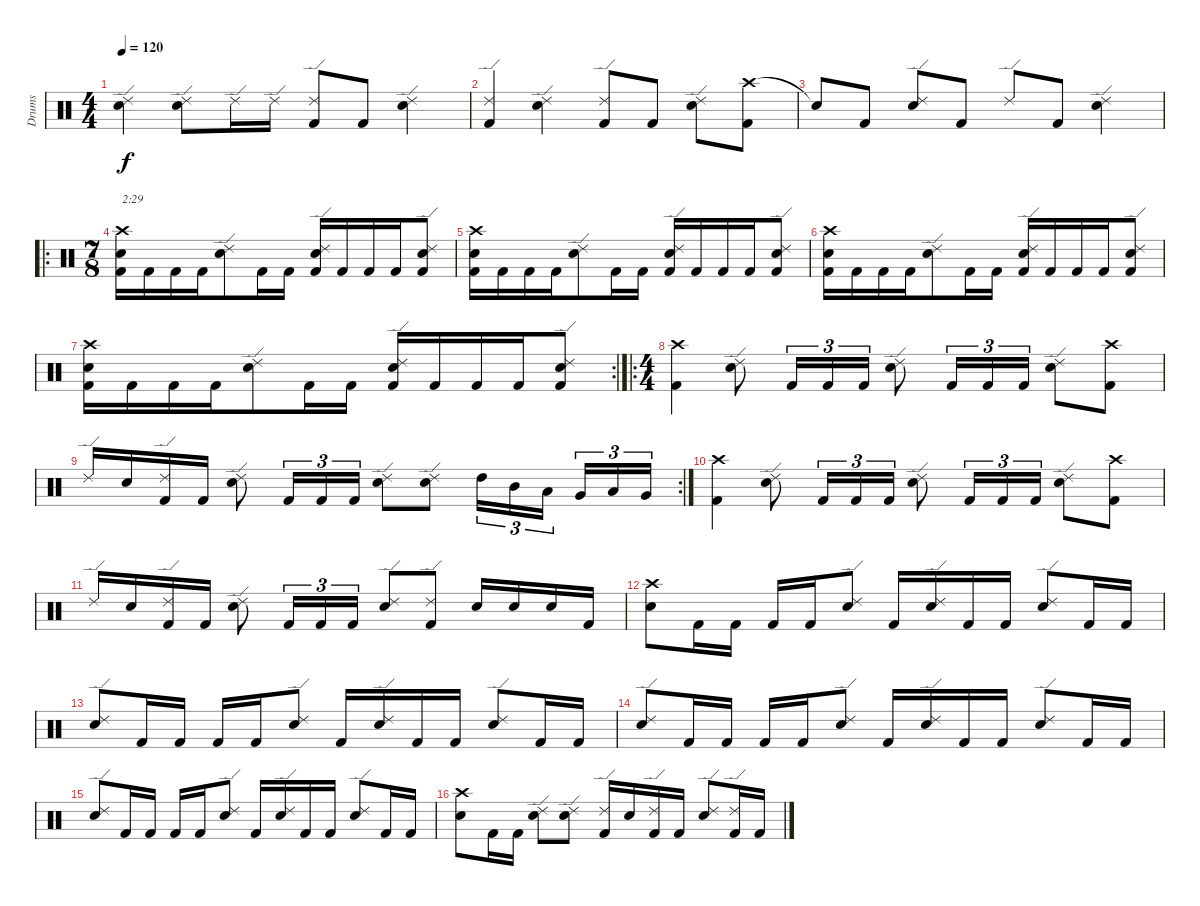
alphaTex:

\track ("Drums" "Drums") {instrument percussion}
\staff {score}
\articulation defaults
\ts (4 4)
\tempo 120
\clef neutral
\ks c
("Ride (edge) 2" "Snare (hit)"{t}).4{dy f} ("Ride (edge) 2" "Snare (hit) 2").8 "Ride (edge) 2".16 "Ride (edge) 2".16 ("Ride (edge) 2" "Kick (hit) 2").8 "Kick (hit) 2".8 ("Ride (edge) 2" "Snare (hit) 2").4 |
("Ride (edge) 2" "Kick (hit) 2").4 ("Ride (edge) 2" "Snare (hit) 2").4 ("Ride (edge) 2" "Kick (hit) 2").8 "Kick (hit) 2".8 ("Ride (edge) 2" "Snare (hit) 2").8 ("Crash high (hit)" "Kick (hit) 2").8 |
"Snare (hit)"{t}.8 "Kick (hit) 2".8 ("Ride (edge) 2" "Snare (hit) 2").8 "Kick (hit) 2".8 "Ride (edge) 2".8 "Kick (hit) 2".8 ("Ride (edge) 2" "Snare (hit) 2").4 |
\ro
\ts (7 8)
("Crash high (hit)" "Snare (hit) 2" "Kick (hit) 2").16{txt "2:29"} "Kick (hit) 2".16 "Kick (hit) 2".16 "Kick (hit) 2".16 ("Ride (edge) 2" "Snare (hit) 2").8 "Kick (hit) 2".16 "Kick (hit) 2".16 ("Ride (edge) 2" "Snare (hit) 2" "Kick (hit) 2").16 "Kick (hit) 2".16 "Kick (hit) 2".16 "Kick (hit) 2".16 ("Ride (edge) 2" "Snare (hit) 2" "Kick (hit) 2").8 |
("Crash high (hit)" "Snare (hit) 2" "Kick (hit) 2").16 "Kick (hit) 2".16 "Kick (hit) 2".16 "Kick (hit) 2".16 ("Ride (edge) 2" "Snare (hit) 2").8 "Kick (hit) 2".16 "Kick (hit) 2".16 ("Ride (edge) 2" "Snare (hit) 2" "Kick (hit) 2").16 "Kick (hit) 2".16 "Kick (hit) 2".16 "Kick (hit) 2".16 ("Ride (edge) 2" "Snare (hit) 2" "Kick (hit) 2").8 |
("Crash high (hit)" "Snare (hit) 2" "Kick (hit) 2").16 "Kick (hit) 2".16 "Kick (hit) 2".16 "Kick (hit) 2".16 ("Ride (edge) 2" "Snare (hit) 2").8 "Kick (hit) 2".16 "Kick (hit) 2".16 ("Ride (edge) 2" "Snare (hit) 2" "Kick (hit) 2").16 "Kick (hit) 2".16 "Kick (hit) 2".16 "Kick (hit) 2".16 ("Ride (edge) 2" "Snare (hit) 2" "Kick (hit) 2").8 |
\rc 2
("Crash high (hit)" "Snare (hit) 2" "Kick (hit) 2").16 "Kick (hit) 2".16 "Kick (hit) 2".16 "Kick (hit) 2".16 ("Ride (edge) 2" "Snare (hit) 2").8 "Kick (hit) 2".16 "Kick (hit) 2".16 ("Ride (edge) 2" "Snare (hit) 2" "Kick (hit) 2").16 "Kick (hit) 2".16 "Kick (hit) 2".16 "Kick (hit) 2".16 ("Ride (edge) 2" "Snare (hit) 2" "Kick (hit) 2").8 |
\ro
\ts (4 4)
("Crash high (hit)" "Kick (hit) 2").4 ("Ride (edge) 2" "Snare (hit) 2").8 "Kick (hit) 2".16{tu (3 2)} "Kick (hit) 2".16{tu (3 2)} "Kick (hit) 2".16{tu (3 2)} ("Ride (edge) 2" "Snare (hit) 2").8 "Kick (hit) 2".16{tu (3 2)} "Kick (hit) 2".16{tu (3 2)} "Kick (hit) 2".16{tu (3 2)} ("Ride (edge) 2" "Snare (hit) 2").8 ("Crash high (hit)" "Kick (hit) 2").8 |
\rc 2 "Ride (edge) 2".16 "Snare (hit) 2".16
("Ride (edge) 2" "Kick (hit) 2").16 "Kick (hit) 2".16 ("Ride (edge) 2" "Snare (hit) 2").8 "Kick (hit) 2".16{tu (3 2)} "Kick (hit) 2".16{tu (3 2)} "Kick (hit) 2".16{tu (3 2)} ("Ride (edge) 2" "Snare (hit) 2").8 ("Ride (edge) 2" "Snare (hit) 2").8 "High Tom (hit)".16{tu (3 2)} "Mid Tom (hit)".16{tu (3 2)} "Low Tom (hit)".16{tu (3 2)} "Very Low Tom (hit)".16{tu (3 2)} "Low Tom (hit)".16{tu (3 2)} "Very Low Tom (hit)".16{tu (3 2)} |
("Crash high (hit)" "Kick (hit) 2").4 ("Ride (edge) 2" "Snare (hit) 2").8 "Kick (hit) 2".16{tu (3 2)} "Kick (hit) 2".16{tu (3 2)} "Kick (hit) 2".16{tu (3 2)} ("Ride (edge) 2" "Snare (hit) 2").8 "Kick (hit) 2".16{tu (3 2)} "Kick (hit) 2".16{tu (3 2)} "Kick (hit) 2".16{tu (3 2)} ("Ride (edge) 2" "Snare (hit) 2").8 ("Crash high (hit)" "Kick (hit) 2").8 |
"Ride (edge) 2".16 "Snare (hit) 2".16 ("Ride (edge) 2" "Kick (hit) 2").16 "Kick (hit) 2".16 ("Ride (edge) 2" "Snare (hit) 2").8 "Kick (hit) 2".16{tu (3 2)} "Kick (hit) 2".16{tu (3 2)} "Kick (hit) 2".16{tu (3 2)} ("Ride (edge) 2" "Snare (hit) 2").8 ("Ride (edge) 2" "Kick (hit) 2").8 "Snare (hit) 2".16 "Snare (hit) 2".16 "Snare (hit) 2".16 "Kick (hit) 2".16 |
("Crash high (hit)" "Snare (hit) 2").8 "Kick (hit) 2".16 "Kick (hit) 2".16 "Kick (hit) 2".16 "Kick (hit) 2".16 ("Ride (edge) 2" "Snare (hit) 2").8 "Kick (hit) 2".16 ("Ride (edge) 2" "Snare (hit) 2").16 "Kick (hit) 2".16 "Kick (hit) 2".16 ("Ride (edge) 2" "Snare (hit) 2").8 "Kick (hit) 2".16 "Kick (hit) 2".16 |
("Ride (edge) 2" "Snare (hit) 2").8 "Kick (hit) 2".16 "Kick (hit) 2".16 "Kick (hit) 2".16 "Kick (hit) 2".16 ("Ride (edge) 2" "Snare (hit) 2").8 "Kick (hit) 2".16 ("Ride (edge) 2" "Snare (hit) 2").16 "Kick (hit) 2".16 "Kick (hit) 2".16 ("Ride (edge) 2" "Snare (hit) 2").8 "Kick (hit) 2".16 "Kick (hit) 2".16 |
("Ride (edge) 2" "Snare (hit) 2").8 "Kick (hit) 2".16 "Kick (hit) 2".16 "Kick (hit) 2".16 "Kick (hit) 2".16 ("Ride (edge) 2" "Snare (hit) 2").8 "Kick (hit) 2".16 ("Ride (edge) 2" "Snare (hit) 2").16 "Kick (hit) 2".16 "Kick (hit) 2".16 ("Ride (edge) 2" "Snare (hit) 2").8 "Kick (hit) 2".16 "Kick (hit) 2".16 |
("Ride (edge) 2" "Snare (hit) 2").8 "Kick (hit) 2".16 "Kick (hit) 2".16 "Kick (hit) 2".16 "Kick (hit) 2".16 ("Ride (edge) 2" "Snare (hit) 2").8 "Kick (hit) 2".16 ("Ride (edge) 2" "Snare (hit) 2").16 "Kick (hit) 2".16 "Kick (hit) 2".16 ("Ride (edge) 2" "Snare (hit) 2").8 "Kick (hit) 2".16 "Kick (hit) 2".16 |
("Crash high (hit)" "Snare (hit) 2").8 "Kick (hit) 2".16 "Kick (hit) 2".16 ("Ride (edge) 2" "Snare (hit) 2").8 ("Ride (edge) 2" "Snare (hit) 2").8 ("Ride (edge) 2" "Kick (hit) 2").16 "Snare (hit) 2".16 ("Ride (edge) 2" "Kick (hit) 2").16 "Kick (hit) 2".16 ("Ride (edge) 2" "Snare (hit) 2").8 ("Ride (edge) 2" "Kick (hit) 2").16 "Kick (hit) 2".16
